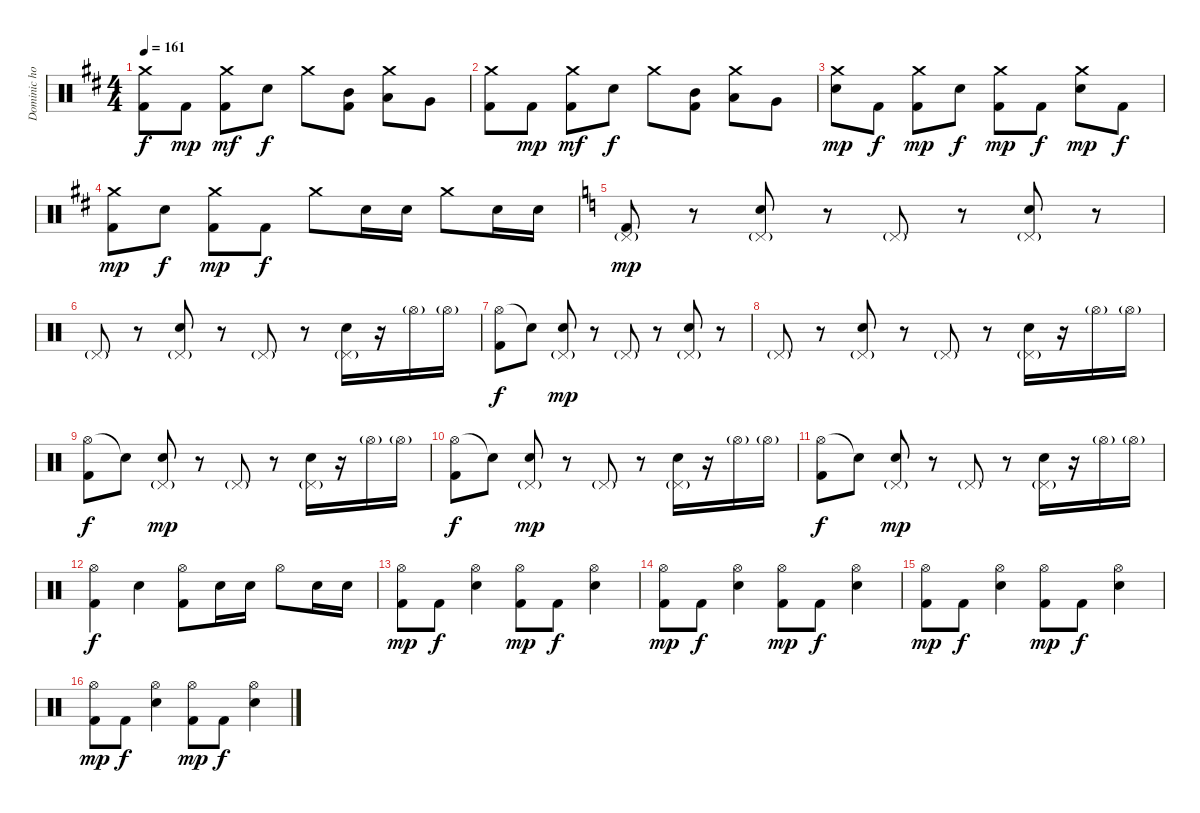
\track ("Dominic howard" "Dominic ho") {instrument percussion}
\staff {score}
\articulation defaults
\ts (4 4)
\tempo 161
\clef neutral
\ks d
("Crash medium (hit)" "Kick (hit) 2").8{dy f} "Kick (hit) 2".8{dy mp} ("Crash medium (hit)" "Kick (hit) 2").8{dy mf} "Electric Snare (hit)".8{dy f} "Crash medium (hit)".8 ("Mid Tom (hit)" "Kick (hit) 2").8 ("Crash medium (hit)" "Low Tom (hit)").8 "Very Low Tom (hit)".8 |
("Crash medium (hit)" "Kick (hit) 2").8 "Kick (hit) 2".8{dy mp} ("Crash medium (hit)" "Kick (hit) 2").8{dy mf} "Electric Snare (hit)".8{dy f} "Crash medium (hit)".8 ("Mid Tom (hit)" "Kick (hit) 2").8 ("Crash medium (hit)" "Low Tom (hit)").8 "Very Low Tom (hit)".8 |
("Crash medium (hit)" "Electric Snare (hit)").8{dy mp} "Kick (hit) 2".8{dy f} ("Crash medium (hit)" "Kick (hit) 2").8{dy mp} "Electric Snare (hit)".8{dy f} ("Crash medium (hit)" "Kick (hit) 2").8{dy mp} "Kick (hit) 2".8{dy f} ("Crash medium (hit)" "Electric Snare (hit)").8{dy mp} "Kick (hit) 2".8{dy f} |
("Crash medium (hit)" "Kick (hit) 2").8{dy mp} "Electric Snare (hit)".8{dy f} ("Crash medium (hit)" "Kick (hit) 2").8{dy mp} "Kick (hit) 2".8{dy f} "Crash medium (hit)".8 "Electric Snare (hit)".16 "Electric Snare (hit)".16 "Crash medium (hit)".8 "Electric Snare (hit)".16 "Electric Snare (hit)".16 |
\ks c
("Pedal Hi-Hat (hit)"{g} "Kick (hit) 2").8{dy mp} r.8 ("Pedal Hi-Hat (hit)"{g} "Snare (hit) 2").8 r.8 "Pedal Hi-Hat (hit)"{g}.8 r.8 ("Pedal Hi-Hat (hit)"{g} "Snare (hit) 2").8 r.8 |
"Pedal Hi-Hat (hit)"{g}.8 r.8 ("Pedal Hi-Hat (hit)"{g} "Snare (hit) 2").8 r.8 "Pedal Hi-Hat (hit)"{g}.8 r.8 ("Pedal Hi-Hat (hit)"{g} "Snare (hit) 2").16 r.16 "Hi-Hat (open)"{g}.16 "Hi-Hat (open)"{g}.16 |
("Hi-Hat (open)" "Kick (hit) 2").8{dy f} "Snare (hit)"{t}.8 ("Pedal Hi-Hat (hit)"{g} "Snare (hit) 2").8{dy mp} r.8 "Pedal Hi-Hat (hit)"{g}.8 r.8 ("Pedal Hi-Hat (hit)"{g} "Snare (hit) 2").8 r.8 |
"Pedal Hi-Hat (hit)"{g}.8 r.8 ("Pedal Hi-Hat (hit)"{g} "Snare (hit) 2").8 r.8 "Pedal Hi-Hat (hit)"{g}.8 r.8 ("Pedal Hi-Hat (hit)"{g} "Snare (hit) 2").16 r.16 "Hi-Hat (open)"{g}.16 "Hi-Hat (open)"{g}.16 |
("Hi-Hat (open)" "Kick (hit) 2").8{dy f} "Snare (hit)"{t}.8 ("Pedal Hi-Hat (hit)"{g} "Snare (hit) 2").8{dy mp} r.8 "Pedal Hi-Hat (hit)"{g}.8 r.8 ("Pedal Hi-Hat (hit)"{g} "Snare (hit) 2").16 r.16 "Hi-Hat (open)"{g}.16 "Hi-Hat (open)"{g}.16 |
("Hi-Hat (open)" "Kick (hit) 2").8{dy f} "Snare (hit)"{t}.8 ("Pedal Hi-Hat (hit)"{g} "Snare (hit) 2").8{dy mp} r.8 "Pedal Hi-Hat (hit)"{g}.8 r.8 ("Pedal Hi-Hat (hit)"{g} "Snare (hit) 2").16 r.16 "Hi-Hat (open)"{g}.16 "Hi-Hat (open)"{g}.16 |
("Hi-Hat (open)" "Kick (hit) 2").8{dy f} "Snare (hit)"{t}.8 ("Pedal Hi-Hat (hit)"{g} "Snare (hit) 2").8{dy mp} r.8 "Pedal Hi-Hat (hit)"{g}.8 r.8 ("Pedal Hi-Hat (hit)"{g} "Snare (hit) 2").16 r.16 "Hi-Hat (open)"{g}.16 "Hi-Hat (open)"{g}.16 |
("Hi-Hat (open)" "Kick (hit) 2").4{dy f} "Electric Snare (hit)".4 ("Hi-Hat (open)" "Kick (hit) 2").8 "Electric Snare (hit)".16 "Electric Snare (hit)".16 "Hi-Hat (open)".8 "Electric Snare (hit)".16 "Electric Snare (hit)".16 |
("Hi-Hat (open)" "Kick (hit) 2").8{dy mp} "Kick (hit) 2".8{dy f} ("Hi-Hat (open)" "Electric Snare (hit)").4 ("Hi-Hat (open)" "Kick (hit) 2").8{dy mp} "Kick (hit) 2".8{dy f} ("Hi-Hat (open)" "Electric Snare (hit)").4 |
("Hi-Hat (open)" "Kick (hit) 2").8{dy mp} "Kick (hit) 2".8{dy f} ("Hi-Hat (open)" "Electric Snare (hit)").4 ("Hi-Hat (open)" "Kick (hit) 2").8{dy mp} "Kick (hit) 2".8{dy f} ("Hi-Hat (open)" "Electric Snare (hit)").4 |
("Hi-Hat (open)" "Kick (hit) 2").8{dy mp} "Kick (hit) 2".8{dy f} ("Hi-Hat (open)" "Electric Snare (hit)").4 ("Hi-Hat (open)" "Kick (hit) 2").8{dy mp} "Kick (hit) 2".8{dy f} ("Hi-Hat (open)" "Electric Snare (hit)").4 |
("Hi-Hat (open)" "Kick (hit) 2").8{dy mp} "Kick (hit) 2".8{dy f} ("Hi-Hat (open)" "Electric Snare (hit)").4 ("Hi-Hat (open)" "Kick (hit) 2").8{dy mp} "Kick (hit) 2".8{dy f} ("Hi-Hat (open)" "Electric Snare (hit)").4
